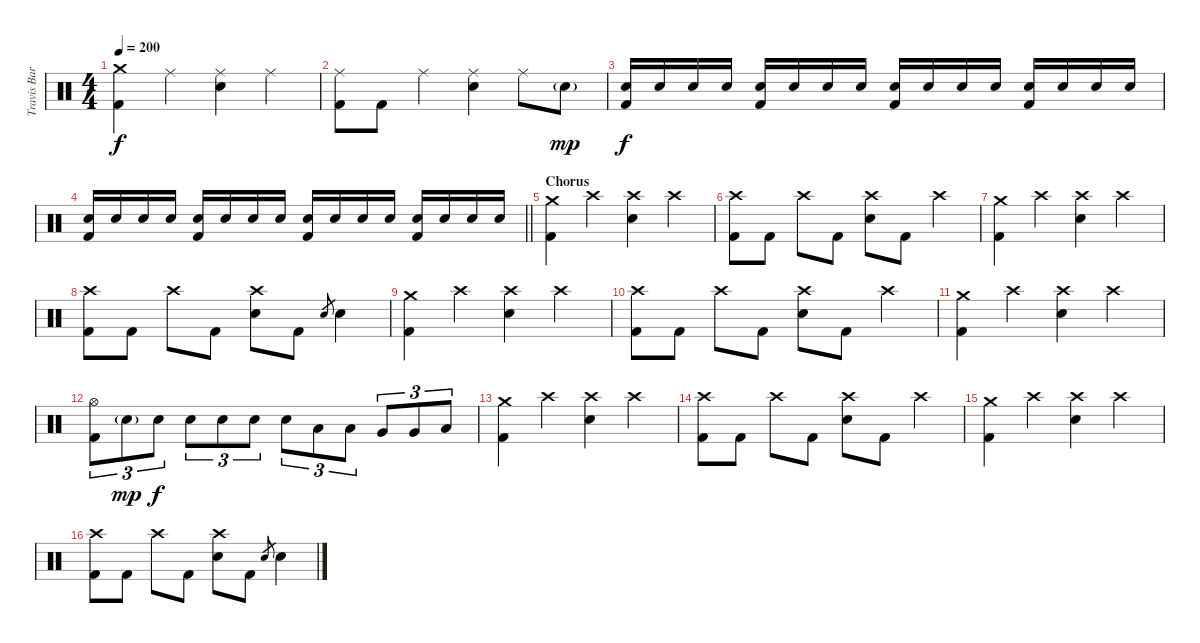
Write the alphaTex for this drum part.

\track ("Travis Barker - Drums" "Travis Bar") {instrument percussion}
\staff {score}
\articulation defaults
\ts (4 4)
\tempo 200
\clef neutral
\ks c
("Crash medium (hit)" "Kick (hit) 2").4{dy f} "Ride (middle)".4 ("Ride (middle)" "Electric Snare (hit)").4 "Ride (middle)".4 |
("Ride (middle)" "Kick (hit) 2").8 "Kick (hit) 2".8 "Ride (middle)".4 ("Ride (middle)" "Electric Snare (hit)").4 "Ride (middle)".8 "Electric Snare (hit)"{g}.8{dy mp} |
("Electric Snare (hit)" "Kick (hit) 2").16{dy f volume 9} "Electric Snare (hit)".16{volume 12} "Electric Snare (hit)".16 "Electric Snare (hit)".16 ("Electric Snare (hit)" "Kick (hit) 2").16 "Electric Snare (hit)".16 "Electric Snare (hit)".16 "Electric Snare (hit)".16 ("Electric Snare (hit)" "Kick (hit) 2").16 "Electric Snare (hit)".16 "Electric Snare (hit)".16 "Electric Snare (hit)".16 ("Electric Snare (hit)" "Kick (hit) 2").16 "Electric Snare (hit)".16 "Electric Snare (hit)".16 "Electric Snare (hit)".16 |
\barLineRight lightlight
("Electric Snare (hit)" "Kick (hit) 2").16 "Electric Snare (hit)".16 "Electric Snare (hit)".16 "Electric Snare (hit)".16 ("Electric Snare (hit)" "Kick (hit) 2").16 "Electric Snare (hit)".16 "Electric Snare (hit)".16 "Electric Snare (hit)".16 ("Electric Snare (hit)" "Kick (hit) 2").16 "Electric Snare (hit)".16 "Electric Snare (hit)".16 "Electric Snare (hit)".16 ("Electric Snare (hit)" "Kick (hit) 2").16 "Electric Snare (hit)".16 "Electric Snare (hit)".16 "Electric Snare (hit)".16 |
\section ("" "Chorus")
("Crash medium (hit)" "Kick (hit) 2").4 "Crash high (hit)".4 ("Crash high (hit)" "Electric Snare (hit)").4 "Crash high (hit)".4 |
("Crash high (hit)" "Kick (hit) 2").8 "Kick (hit) 2".8 "Crash high (hit)".8 "Kick (hit) 2".8 ("Crash high (hit)" "Electric Snare (hit)").8 "Kick (hit) 2".8 "Crash high (hit)".4 |
("Crash medium (hit)" "Kick (hit) 2").4 "Crash high (hit)".4 ("Crash high (hit)" "Electric Snare (hit)").4 "Crash high (hit)".4 |
("Crash high (hit)" "Kick (hit) 2").8 "Kick (hit) 2".8 "Crash high (hit)".8 "Kick (hit) 2".8 ("Crash high (hit)" "Electric Snare (hit)").8 "Kick (hit) 2".8 "Electric Snare (hit)".8{gr} "Electric Snare (hit)".4 |
("Crash medium (hit)" "Kick (hit) 2").4 "Crash high (hit)".4 ("Crash high (hit)" "Electric Snare (hit)").4 "Crash high (hit)".4 |
("Crash high (hit)" "Kick (hit) 2").8 "Kick (hit) 2".8 "Crash high (hit)".8 "Kick (hit) 2".8 ("Crash high (hit)" "Electric Snare (hit)").8 "Kick (hit) 2".8 "Crash high (hit)".4 |
("Crash medium (hit)" "Kick (hit) 2").4 "Crash high (hit)".4 ("Crash high (hit)" "Electric Snare (hit)").4 "Crash high (hit)".4 |
("Hi-Hat (open)" "Kick (hit) 2").8{tu (3 2)} "Electric Snare (hit)"{g}.8{tu (3 2) dy mp} "Electric Snare (hit)".8{tu (3 2) dy f} "Electric Snare (hit)".8{tu (3 2)} "Electric Snare (hit)".8{tu (3 2)} "Electric Snare (hit)".8{tu (3 2)} "Electric Snare (hit)".8{tu (3 2)} "Low Tom (hit)".8{tu (3 2)} "Low Tom (hit)".8{tu (3 2)} "Very Low Tom (hit)".8{tu (3 2)} "Very Low Tom (hit)".8{tu (3 2)} "Low Floor Tom (hit)".8{tu (3 2)} |
("Crash medium (hit)" "Kick (hit) 2").4 "Crash high (hit)".4 ("Crash high (hit)" "Electric Snare (hit)").4 "Crash high (hit)".4 |
("Crash high (hit)" "Kick (hit) 2").8 "Kick (hit) 2".8 "Crash high (hit)".8 "Kick (hit) 2".8 ("Crash high (hit)" "Electric Snare (hit)").8 "Kick (hit) 2".8 "Crash high (hit)".4 |
("Crash medium (hit)" "Kick (hit) 2").4 "Crash high (hit)".4 ("Crash high (hit)" "Electric Snare (hit)").4 "Crash high (hit)".4 |
("Crash high (hit)" "Kick (hit) 2").8 "Kick (hit) 2".8 "Crash high (hit)".8 "Kick (hit) 2".8 ("Crash high (hit)" "Electric Snare (hit)").8 "Kick (hit) 2".8 "Electric Snare (hit)".8{gr} "Electric Snare (hit)".4
